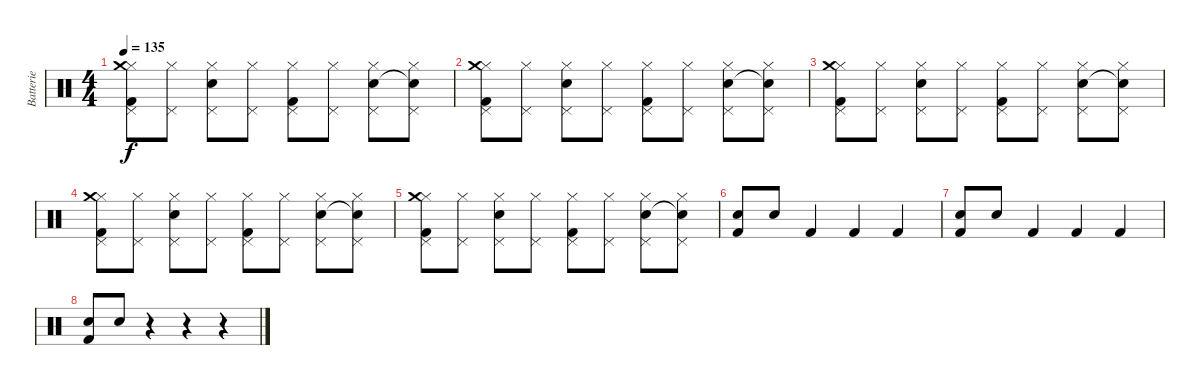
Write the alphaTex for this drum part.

\track ("Batterie" "Batterie") {instrument percussion}
\staff {score}
\articulation defaults
\ts (4 4)
\tempo 135
\clef neutral
\ks c
("Hi-Hat (closed)" "Pedal Hi-Hat (hit)" "Crash medium (hit)" "Kick (hit) 2").8{dy f} ("Hi-Hat (closed)" "Pedal Hi-Hat (hit)").8 ("Hi-Hat (closed)" "Pedal Hi-Hat (hit)" "Electric Snare (hit)").8 ("Hi-Hat (closed)" "Pedal Hi-Hat (hit)").8 ("Hi-Hat (closed)" "Pedal Hi-Hat (hit)" "Kick (hit) 2").8 ("Hi-Hat (closed)" "Pedal Hi-Hat (hit)").8 ("Hi-Hat (closed)" "Pedal Hi-Hat (hit)" "Electric Snare (hit)").8 ("Hi-Hat (closed)" "Pedal Hi-Hat (hit)" "Snare (hit)"{t}).8 |
("Hi-Hat (closed)" "Pedal Hi-Hat (hit)" "Crash medium (hit)" "Kick (hit) 2").8 ("Hi-Hat (closed)" "Pedal Hi-Hat (hit)").8 ("Hi-Hat (closed)" "Pedal Hi-Hat (hit)" "Electric Snare (hit)").8 ("Hi-Hat (closed)" "Pedal Hi-Hat (hit)").8 ("Hi-Hat (closed)" "Pedal Hi-Hat (hit)" "Kick (hit) 2").8 ("Hi-Hat (closed)" "Pedal Hi-Hat (hit)").8 ("Hi-Hat (closed)" "Pedal Hi-Hat (hit)" "Electric Snare (hit)").8 ("Hi-Hat (closed)" "Pedal Hi-Hat (hit)" "Snare (hit)"{t}).8 |
("Hi-Hat (closed)" "Pedal Hi-Hat (hit)" "Crash medium (hit)" "Kick (hit) 2").8 ("Hi-Hat (closed)" "Pedal Hi-Hat (hit)").8 ("Hi-Hat (closed)" "Pedal Hi-Hat (hit)" "Electric Snare (hit)").8 ("Hi-Hat (closed)" "Pedal Hi-Hat (hit)").8 ("Hi-Hat (closed)" "Pedal Hi-Hat (hit)" "Kick (hit) 2").8 ("Hi-Hat (closed)" "Pedal Hi-Hat (hit)").8 ("Hi-Hat (closed)" "Pedal Hi-Hat (hit)" "Electric Snare (hit)").8 ("Hi-Hat (closed)" "Pedal Hi-Hat (hit)" "Snare (hit)"{t}).8 |
("Hi-Hat (closed)" "Pedal Hi-Hat (hit)" "Crash medium (hit)" "Kick (hit) 2").8 ("Hi-Hat (closed)" "Pedal Hi-Hat (hit)").8 ("Hi-Hat (closed)" "Pedal Hi-Hat (hit)" "Electric Snare (hit)").8 ("Hi-Hat (closed)" "Pedal Hi-Hat (hit)").8 ("Hi-Hat (closed)" "Pedal Hi-Hat (hit)" "Kick (hit) 2").8 ("Hi-Hat (closed)" "Pedal Hi-Hat (hit)").8 ("Hi-Hat (closed)" "Pedal Hi-Hat (hit)" "Electric Snare (hit)").8 ("Hi-Hat (closed)" "Pedal Hi-Hat (hit)" "Snare (hit)"{t}).8 |
("Hi-Hat (closed)" "Pedal Hi-Hat (hit)" "Crash medium (hit)" "Kick (hit) 2").8 ("Hi-Hat (closed)" "Pedal Hi-Hat (hit)").8 ("Hi-Hat (closed)" "Pedal Hi-Hat (hit)" "Electric Snare (hit)").8 ("Hi-Hat (closed)" "Pedal Hi-Hat (hit)").8 ("Hi-Hat (closed)" "Pedal Hi-Hat (hit)" "Kick (hit) 2").8 ("Hi-Hat (closed)" "Pedal Hi-Hat (hit)").8 ("Hi-Hat (closed)" "Pedal Hi-Hat (hit)" "Electric Snare (hit)").8 ("Hi-Hat (closed)" "Pedal Hi-Hat (hit)" "Snare (hit)"{t}).8 |
("Electric Snare (hit)" "Kick (hit) 2").8 "Electric Snare (hit)".8 "Kick (hit) 2".4 "Kick (hit) 2".4 "Kick (hit) 2".4 |
("Electric Snare (hit)" "Kick (hit) 2").8 "Electric Snare (hit)".8 "Kick (hit) 2".4 "Kick (hit) 2".4 "Kick (hit) 2".4 |
("Electric Snare (hit)" "Kick (hit) 2").8 "Electric Snare (hit)".8 r.4 r.4 r.4
